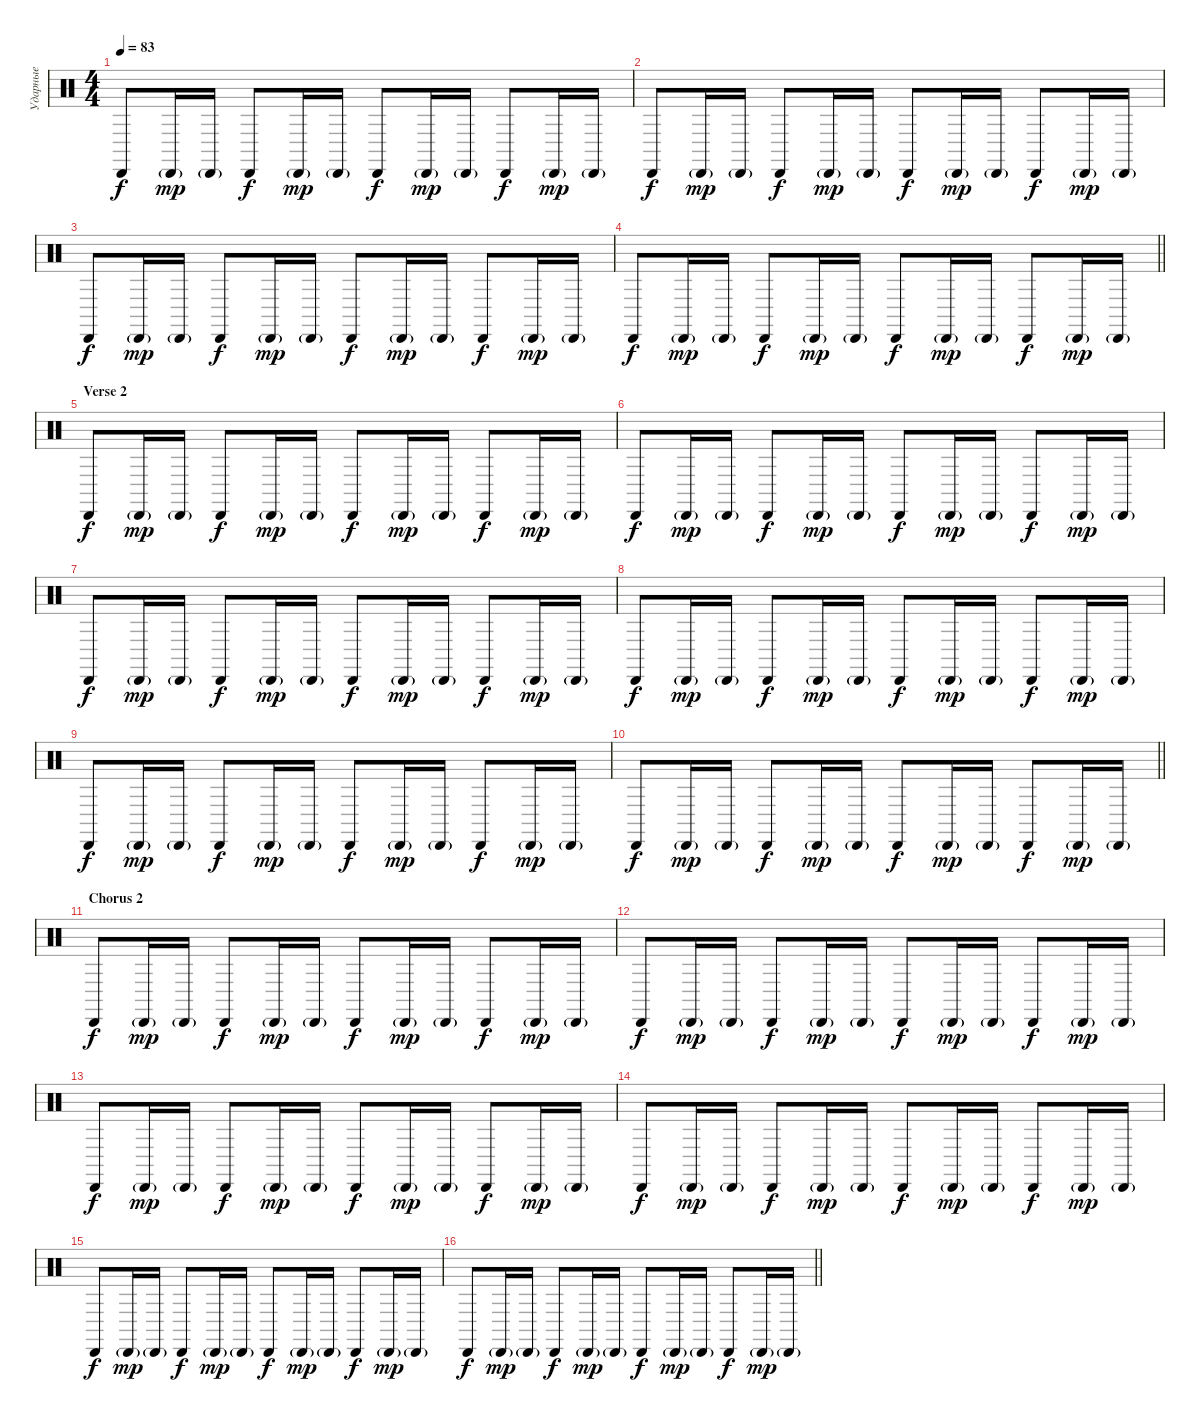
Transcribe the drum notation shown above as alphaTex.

\track ("Ударные" "Ударные") {instrument percussion}
\staff {score}
\articulation defaults
\ts (4 4)
\tempo 83
\clef neutral
\ks c "Cabasa (hit)".8{dy f} "Cabasa (hit)"{g}.16{dy mp} "Cabasa (hit)"{g}.16 "Cabasa (hit)".8{dy f} "Cabasa (hit)"{g}.16{dy mp} "Cabasa (hit)"{g}.16 "Cabasa (hit)".8{dy f} "Cabasa (hit)"{g}.16{dy mp} "Cabasa (hit)"{g}.16 "Cabasa (hit)".8{dy f} "Cabasa (hit)"{g}.16{dy mp} "Cabasa (hit)"{g}.16
|
"Cabasa (hit)".8{dy f} "Cabasa (hit)"{g}.16{dy mp} "Cabasa (hit)"{g}.16 "Cabasa (hit)".8{dy f} "Cabasa (hit)"{g}.16{dy mp} "Cabasa (hit)"{g}.16 "Cabasa (hit)".8{dy f} "Cabasa (hit)"{g}.16{dy mp} "Cabasa (hit)"{g}.16 "Cabasa (hit)".8{dy f} "Cabasa (hit)"{g}.16{dy mp} "Cabasa (hit)"{g}.16 |
"Cabasa (hit)".8{dy f} "Cabasa (hit)"{g}.16{dy mp} "Cabasa (hit)"{g}.16 "Cabasa (hit)".8{dy f} "Cabasa (hit)"{g}.16{dy mp} "Cabasa (hit)"{g}.16 "Cabasa (hit)".8{dy f} "Cabasa (hit)"{g}.16{dy mp} "Cabasa (hit)"{g}.16 "Cabasa (hit)".8{dy f} "Cabasa (hit)"{g}.16{dy mp} "Cabasa (hit)"{g}.16 |
\barLineRight lightlight "Cabasa (hit)".8{dy f} "Cabasa (hit)"{g}.16{dy mp} "Cabasa (hit)"{g}.16 "Cabasa (hit)".8{dy f} "Cabasa (hit)"{g}.16{dy mp} "Cabasa (hit)"{g}.16 "Cabasa (hit)".8{dy f} "Cabasa (hit)"{g}.16{dy mp} "Cabasa (hit)"{g}.16 "Cabasa (hit)".8{dy f} "Cabasa (hit)"{g}.16{dy mp} "Cabasa (hit)"{g}.16
|
\section ("" "Verse 2")
"Cabasa (hit)".8{dy f} "Cabasa (hit)"{g}.16{dy mp} "Cabasa (hit)"{g}.16 "Cabasa (hit)".8{dy f} "Cabasa (hit)"{g}.16{dy mp} "Cabasa (hit)"{g}.16 "Cabasa (hit)".8{dy f} "Cabasa (hit)"{g}.16{dy mp} "Cabasa (hit)"{g}.16 "Cabasa (hit)".8{dy f} "Cabasa (hit)"{g}.16{dy mp} "Cabasa (hit)"{g}.16 |
"Cabasa (hit)".8{dy f} "Cabasa (hit)"{g}.16{dy mp} "Cabasa (hit)"{g}.16 "Cabasa (hit)".8{dy f} "Cabasa (hit)"{g}.16{dy mp} "Cabasa (hit)"{g}.16 "Cabasa (hit)".8{dy f} "Cabasa (hit)"{g}.16{dy mp} "Cabasa (hit)"{g}.16 "Cabasa (hit)".8{dy f} "Cabasa (hit)"{g}.16{dy mp} "Cabasa (hit)"{g}.16 |
"Cabasa (hit)".8{dy f} "Cabasa (hit)"{g}.16{dy mp} "Cabasa (hit)"{g}.16 "Cabasa (hit)".8{dy f} "Cabasa (hit)"{g}.16{dy mp} "Cabasa (hit)"{g}.16 "Cabasa (hit)".8{dy f} "Cabasa (hit)"{g}.16{dy mp} "Cabasa (hit)"{g}.16 "Cabasa (hit)".8{dy f} "Cabasa (hit)"{g}.16{dy mp} "Cabasa (hit)"{g}.16 |
"Cabasa (hit)".8{dy f} "Cabasa (hit)"{g}.16{dy mp} "Cabasa (hit)"{g}.16 "Cabasa (hit)".8{dy f} "Cabasa (hit)"{g}.16{dy mp} "Cabasa (hit)"{g}.16 "Cabasa (hit)".8{dy f} "Cabasa (hit)"{g}.16{dy mp} "Cabasa (hit)"{g}.16 "Cabasa (hit)".8{dy f} "Cabasa (hit)"{g}.16{dy mp} "Cabasa (hit)"{g}.16 |
"Cabasa (hit)".8{dy f} "Cabasa (hit)"{g}.16{dy mp} "Cabasa (hit)"{g}.16 "Cabasa (hit)".8{dy f} "Cabasa (hit)"{g}.16{dy mp} "Cabasa (hit)"{g}.16 "Cabasa (hit)".8{dy f} "Cabasa (hit)"{g}.16{dy mp} "Cabasa (hit)"{g}.16 "Cabasa (hit)".8{dy f} "Cabasa (hit)"{g}.16{dy mp} "Cabasa (hit)"{g}.16 |
\barLineRight lightlight "Cabasa (hit)".8{dy f} "Cabasa (hit)"{g}.16{dy mp} "Cabasa (hit)"{g}.16 "Cabasa (hit)".8{dy f} "Cabasa (hit)"{g}.16{dy mp} "Cabasa (hit)"{g}.16 "Cabasa (hit)".8{dy f} "Cabasa (hit)"{g}.16{dy mp} "Cabasa (hit)"{g}.16 "Cabasa (hit)".8{dy f} "Cabasa (hit)"{g}.16{dy mp} "Cabasa (hit)"{g}.16
|
\section ("" "Chorus 2")
"Cabasa (hit)".8{dy f} "Cabasa (hit)"{g}.16{dy mp} "Cabasa (hit)"{g}.16 "Cabasa (hit)".8{dy f} "Cabasa (hit)"{g}.16{dy mp} "Cabasa (hit)"{g}.16 "Cabasa (hit)".8{dy f} "Cabasa (hit)"{g}.16{dy mp} "Cabasa (hit)"{g}.16 "Cabasa (hit)".8{dy f} "Cabasa (hit)"{g}.16{dy mp} "Cabasa (hit)"{g}.16 |
"Cabasa (hit)".8{dy f} "Cabasa (hit)"{g}.16{dy mp} "Cabasa (hit)"{g}.16 "Cabasa (hit)".8{dy f} "Cabasa (hit)"{g}.16{dy mp} "Cabasa (hit)"{g}.16 "Cabasa (hit)".8{dy f} "Cabasa (hit)"{g}.16{dy mp} "Cabasa (hit)"{g}.16 "Cabasa (hit)".8{dy f} "Cabasa (hit)"{g}.16{dy mp} "Cabasa (hit)"{g}.16 |
"Cabasa (hit)".8{dy f} "Cabasa (hit)"{g}.16{dy mp} "Cabasa (hit)"{g}.16 "Cabasa (hit)".8{dy f} "Cabasa (hit)"{g}.16{dy mp} "Cabasa (hit)"{g}.16 "Cabasa (hit)".8{dy f} "Cabasa (hit)"{g}.16{dy mp} "Cabasa (hit)"{g}.16 "Cabasa (hit)".8{dy f} "Cabasa (hit)"{g}.16{dy mp} "Cabasa (hit)"{g}.16 |
"Cabasa (hit)".8{dy f} "Cabasa (hit)"{g}.16{dy mp} "Cabasa (hit)"{g}.16 "Cabasa (hit)".8{dy f} "Cabasa (hit)"{g}.16{dy mp} "Cabasa (hit)"{g}.16 "Cabasa (hit)".8{dy f} "Cabasa (hit)"{g}.16{dy mp} "Cabasa (hit)"{g}.16 "Cabasa (hit)".8{dy f} "Cabasa (hit)"{g}.16{dy mp} "Cabasa (hit)"{g}.16 |
"Cabasa (hit)".8{dy f} "Cabasa (hit)"{g}.16{dy mp} "Cabasa (hit)"{g}.16 "Cabasa (hit)".8{dy f} "Cabasa (hit)"{g}.16{dy mp} "Cabasa (hit)"{g}.16 "Cabasa (hit)".8{dy f} "Cabasa (hit)"{g}.16{dy mp} "Cabasa (hit)"{g}.16 "Cabasa (hit)".8{dy f} "Cabasa (hit)"{g}.16{dy mp} "Cabasa (hit)"{g}.16 |
\barLineRight lightlight "Cabasa (hit)".8{dy f} "Cabasa (hit)"{g}.16{dy mp} "Cabasa (hit)"{g}.16 "Cabasa (hit)".8{dy f} "Cabasa (hit)"{g}.16{dy mp} "Cabasa (hit)"{g}.16 "Cabasa (hit)".8{dy f} "Cabasa (hit)"{g}.16{dy mp} "Cabasa (hit)"{g}.16 "Cabasa (hit)".8{dy f} "Cabasa (hit)"{g}.16{dy mp} "Cabasa (hit)"{g}.16
